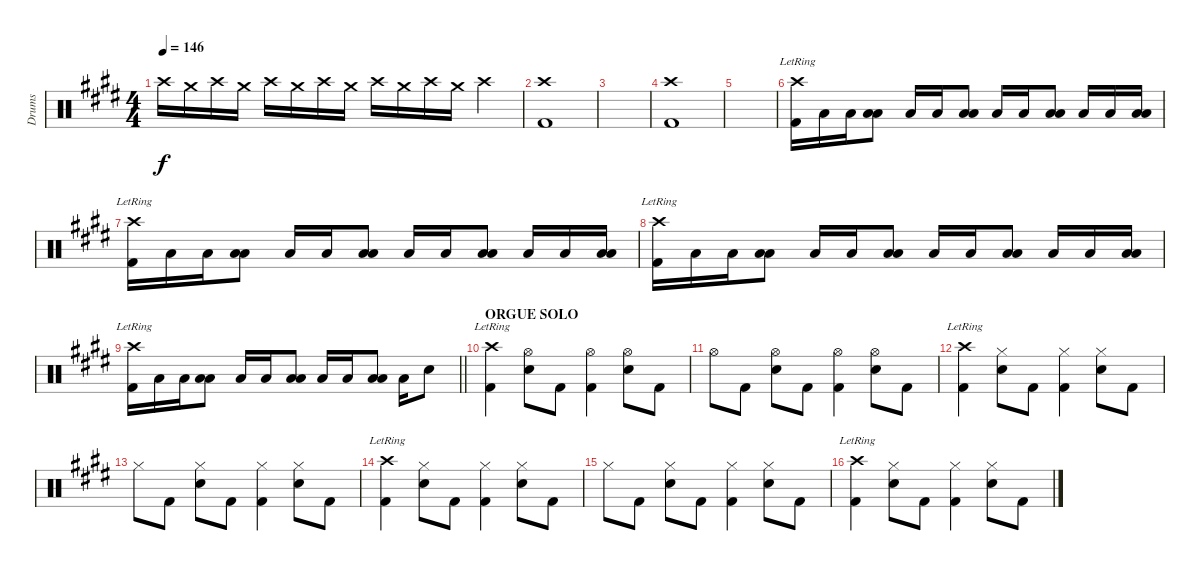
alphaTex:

\track ("Drums" "Drums") {instrument percussion}
\staff {score}
\articulation defaults
\ts (4 4)
\tempo 146
\clef neutral
\ks e "Crash high (hit)".16{dy f} "Crash medium (hit)".16 "Crash high (hit)".16 "Crash medium (hit)".16 "Crash high (hit)".16 "Crash medium (hit)".16 "Crash high (hit)".16 "Crash medium (hit)".16 "Crash high (hit)".16 "Crash medium (hit)".16 "Crash high (hit)".16 "Crash medium (hit)".16 "Crash high (hit)".4
|
("Kick (hit) 2" "Crash high (hit)").1 |
|
("Kick (hit) 2" "Crash high (hit)").1 |
|
("Kick (hit) 2" "Crash high (hit)"{lr}).16 "Low Floor Tom (hit)".16 "Low Floor Tom (hit)".16 ("Low Floor Tom (hit)" "Low Floor Tom (hit)").8 "Low Floor Tom (hit)".16 "Low Floor Tom (hit)".16 ("Low Floor Tom (hit)" "Low Floor Tom (hit)").8 "Low Floor Tom (hit)".16 "Low Floor Tom (hit)".16 ("Low Floor Tom (hit)" "Low Floor Tom (hit)").8 "Low Floor Tom (hit)".16 "Low Floor Tom (hit)".16 ("Low Floor Tom (hit)" "Low Floor Tom (hit)").16 |
("Kick (hit) 2" "Crash high (hit)"{lr}).16 "Low Floor Tom (hit)".16 "Low Floor Tom (hit)".16 ("Low Floor Tom (hit)" "Low Floor Tom (hit)").8 "Low Floor Tom (hit)".16 "Low Floor Tom (hit)".16 ("Low Floor Tom (hit)" "Low Floor Tom (hit)").8 "Low Floor Tom (hit)".16 "Low Floor Tom (hit)".16 ("Low Floor Tom (hit)" "Low Floor Tom (hit)").8 "Low Floor Tom (hit)".16 "Low Floor Tom (hit)".16 ("Low Floor Tom (hit)" "Low Floor Tom (hit)").16 |
("Kick (hit) 2" "Crash high (hit)"{lr}).16 "Low Floor Tom (hit)".16 "Low Floor Tom (hit)".16 ("Low Floor Tom (hit)" "Low Floor Tom (hit)").8 "Low Floor Tom (hit)".16 "Low Floor Tom (hit)".16 ("Low Floor Tom (hit)" "Low Floor Tom (hit)").8 "Low Floor Tom (hit)".16 "Low Floor Tom (hit)".16 ("Low Floor Tom (hit)" "Low Floor Tom (hit)").8 "Low Floor Tom (hit)".16 "Low Floor Tom (hit)".16 ("Low Floor Tom (hit)" "Low Floor Tom (hit)").16 |
\barLineRight lightlight
("Kick (hit) 2" "Crash high (hit)"{lr}).16 "Low Floor Tom (hit)".16 "Low Floor Tom (hit)".16 ("Low Floor Tom (hit)" "Low Floor Tom (hit)").8 "Low Floor Tom (hit)".16 "Low Floor Tom (hit)".16 ("Low Floor Tom (hit)" "Low Floor Tom (hit)").8 "Low Floor Tom (hit)".16 "Low Floor Tom (hit)".16 ("Low Floor Tom (hit)" "Low Floor Tom (hit)").8 "Low Floor Tom (hit)".16 "Snare (hit) 2".8 |
\section ("" "ORGUE SOLO")
("Kick (hit) 2" "Crash high (hit)"{lr}).4 ("Snare (hit) 2" "Hi-Hat (open)").8 "Kick (hit) 2".8 ("Kick (hit) 2" "Hi-Hat (open)").4 ("Snare (hit) 2" "Hi-Hat (open)").8 "Kick (hit) 2".8 |
"Hi-Hat (open)".8 "Kick (hit) 2".8 ("Snare (hit) 2" "Hi-Hat (open)").8 "Kick (hit) 2".8 ("Kick (hit) 2" "Hi-Hat (open)").4 ("Snare (hit) 2" "Hi-Hat (open)").8 "Kick (hit) 2".8 |
("Kick (hit) 2" "Crash high (hit)"{lr}).4 ("Snare (hit) 2" "Hi-Hat (closed)").8 "Kick (hit) 2".8 ("Kick (hit) 2" "Hi-Hat (closed)").4 ("Snare (hit) 2" "Hi-Hat (closed)").8 "Kick (hit) 2".8 |
"Hi-Hat (closed)".8 "Kick (hit) 2".8 ("Snare (hit) 2" "Hi-Hat (closed)").8 "Kick (hit) 2".8 ("Kick (hit) 2" "Hi-Hat (closed)").4 ("Snare (hit) 2" "Hi-Hat (closed)").8 "Kick (hit) 2".8 |
("Kick (hit) 2" "Crash high (hit)"{lr}).4 ("Snare (hit) 2" "Hi-Hat (closed)").8 "Kick (hit) 2".8 ("Kick (hit) 2" "Hi-Hat (closed)").4 ("Snare (hit) 2" "Hi-Hat (closed)").8 "Kick (hit) 2".8 |
"Hi-Hat (closed)".8 "Kick (hit) 2".8 ("Snare (hit) 2" "Hi-Hat (closed)").8 "Kick (hit) 2".8 ("Kick (hit) 2" "Hi-Hat (closed)").4 ("Snare (hit) 2" "Hi-Hat (closed)").8 "Kick (hit) 2".8 |
("Kick (hit) 2" "Crash high (hit)"{lr}).4 ("Snare (hit) 2" "Hi-Hat (closed)").8 "Kick (hit) 2".8 ("Kick (hit) 2" "Hi-Hat (closed)").4 ("Snare (hit) 2" "Hi-Hat (closed)").8 "Kick (hit) 2".8
